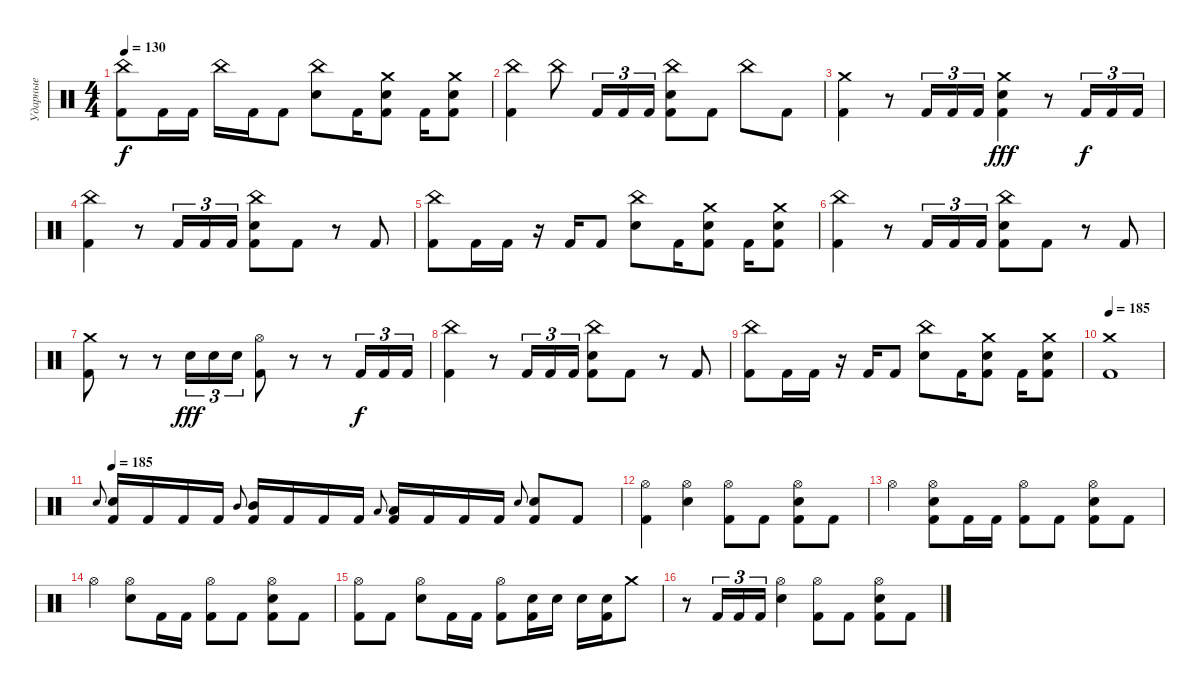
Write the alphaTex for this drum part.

\track ("Ударные" "Ударные") {instrument percussion}
\staff {score}
\articulation defaults
\ts (4 4)
\tempo 130
\clef neutral
\ks c
("China (hit)" "Kick (hit) 2").8{dy f} "Kick (hit) 2".16 "Kick (hit) 2".16 "China (hit)".16 "Kick (hit) 2".16 "Kick (hit) 2".8 ("China (hit)" "Electric Snare (hit)").8 "Kick (hit) 2".16 ("Crash medium (hit)" "Electric Snare (hit)" "Kick (hit) 2").8 "Kick (hit) 2".16 ("Crash medium (hit)" "Electric Snare (hit)" "Kick (hit) 2").8 |
("China (hit)" "Kick (hit) 2").4 "China (hit)".8 "Kick (hit) 2".16{tu (3 2)} "Kick (hit) 2".16{tu (3 2)} "Kick (hit) 2".16{tu (3 2)} ("China (hit)" "Electric Snare (hit)" "Kick (hit) 2").8 "Kick (hit) 2".8 "China (hit)".8 "Kick (hit) 2".8 |
("Crash medium (hit)" "Kick (hit) 2").4 r.8 "Kick (hit) 2".16{tu (3 2)} "Kick (hit) 2".16{tu (3 2)} "Kick (hit) 2".16{tu (3 2)} ("Crash medium (hit)" "Electric Snare (hit)" "Kick (hit) 2").4{dy fff} r.8 "Kick (hit) 2".16{tu (3 2) dy f} "Kick (hit) 2".16{tu (3 2)} "Kick (hit) 2".16{tu (3 2)} |
("China (hit)" "Kick (hit) 2").4 r.8 "Kick (hit) 2".16{tu (3 2)} "Kick (hit) 2".16{tu (3 2)} "Kick (hit) 2".16{tu (3 2)} ("China (hit)" "Electric Snare (hit)" "Kick (hit) 2").8 "Kick (hit) 2".8 r.8 "Kick (hit) 2".8 |
("China (hit)" "Kick (hit) 2").8 "Kick (hit) 2".16 "Kick (hit) 2".16 r.16 "Kick (hit) 2".16 "Kick (hit) 2".8 ("China (hit)" "Electric Snare (hit)").8 "Kick (hit) 2".16 ("Crash medium (hit)" "Electric Snare (hit)" "Kick (hit) 2").8 "Kick (hit) 2".16 ("Crash medium (hit)" "Electric Snare (hit)" "Kick (hit) 2").8 |
("China (hit)" "Kick (hit) 2").4 r.8 "Kick (hit) 2".16{tu (3 2)} "Kick (hit) 2".16{tu (3 2)} "Kick (hit) 2".16{tu (3 2)} ("China (hit)" "Electric Snare (hit)" "Kick (hit) 2").8 "Kick (hit) 2".8 r.8 "Kick (hit) 2".8 |
("Crash medium (hit)" "Kick (hit) 2").8 r.8 r.8 "Electric Snare (hit)".16{tu (3 2) dy fff} "Electric Snare (hit)".16{tu (3 2)} "Electric Snare (hit)".16{tu (3 2)} ("Hi-Hat (open)" "Kick (hit) 2").8 r.8 r.8 "Kick (hit) 2".16{tu (3 2) dy f} "Kick (hit) 2".16{tu (3 2)} "Kick (hit) 2".16{tu (3 2)} |
("China (hit)" "Kick (hit) 2").4 r.8 "Kick (hit) 2".16{tu (3 2)} "Kick (hit) 2".16{tu (3 2)} "Kick (hit) 2".16{tu (3 2)} ("China (hit)" "Electric Snare (hit)" "Kick (hit) 2").8 "Kick (hit) 2".8 r.8 "Kick (hit) 2".8 |
("China (hit)" "Kick (hit) 2").8 "Kick (hit) 2".16 "Kick (hit) 2".16 r.16 "Kick (hit) 2".16 "Kick (hit) 2".8 ("China (hit)" "Electric Snare (hit)").8 "Kick (hit) 2".16 ("Crash medium (hit)" "Electric Snare (hit)" "Kick (hit) 2").8 "Kick (hit) 2".16 ("Crash medium (hit)" "Electric Snare (hit)" "Kick (hit) 2").8 |
\tempo 185
("Crash medium (hit)" "Kick (hit) 2").1 |
\tempo (185 0.03125)
"Electric Snare (hit)"{x}.8{gr onbeat} ("Electric Snare (hit)" "Kick (hit) 2").16 "Kick (hit) 2".16 "Kick (hit) 2".16 "Kick (hit) 2".16 "Mid Tom (hit)"{x}.8{gr onbeat} ("Mid Tom (hit)" "Kick (hit) 2").16 "Kick (hit) 2".16 "Kick (hit) 2".16 "Kick (hit) 2".16 "Low Tom (hit)"{x}.8{gr onbeat} ("Low Tom (hit)" "Kick (hit) 2").16 "Kick (hit) 2".16 "Kick (hit) 2".16 "Kick (hit) 2".16 "Electric Snare (hit)"{x}.8{gr onbeat} ("Electric Snare (hit)" "Kick (hit) 2").8 "Kick (hit) 2".8 |
("Hi-Hat (open)" "Kick (hit) 2").4 ("Hi-Hat (open)" "Electric Snare (hit)").4 ("Hi-Hat (open)" "Kick (hit) 2").8 "Kick (hit) 2".8 ("Hi-Hat (open)" "Electric Snare (hit)" "Kick (hit) 2").8 "Kick (hit) 2".8 |
"Hi-Hat (open)".4 ("Hi-Hat (open)" "Electric Snare (hit)" "Kick (hit) 2").8 "Kick (hit) 2".16 "Kick (hit) 2".16 ("Hi-Hat (open)" "Kick (hit) 2").8 "Kick (hit) 2".8 ("Hi-Hat (open)" "Electric Snare (hit)" "Kick (hit) 2").8 "Kick (hit) 2".8 |
"Hi-Hat (open)".4 ("Hi-Hat (open)" "Electric Snare (hit)").8 "Kick (hit) 2".16 "Kick (hit) 2".16 ("Hi-Hat (open)" "Kick (hit) 2").8 "Kick (hit) 2".8 ("Hi-Hat (open)" "Electric Snare (hit)" "Kick (hit) 2").8 "Kick (hit) 2".8 |
("Hi-Hat (open)" "Kick (hit) 2").8 "Kick (hit) 2".8 ("Hi-Hat (open)" "Electric Snare (hit)").8 "Kick (hit) 2".16 "Kick (hit) 2".16 ("Hi-Hat (open)" "Kick (hit) 2").8 ("Electric Snare (hit)" "Kick (hit) 2").16 "Electric Snare (hit)".16 "Electric Snare (hit)".16 ("Electric Snare (hit)" "Kick (hit) 2").16 "Crash medium (hit)".8 |
r.8 "Kick (hit) 2".16{tu (3 2)} "Kick (hit) 2".16{tu (3 2)} "Kick (hit) 2".16{tu (3 2)} ("Hi-Hat (open)" "Electric Snare (hit)").4 ("Hi-Hat (open)" "Kick (hit) 2").8 "Kick (hit) 2".8 ("Hi-Hat (open)" "Electric Snare (hit)" "Kick (hit) 2").8 "Kick (hit) 2".8
